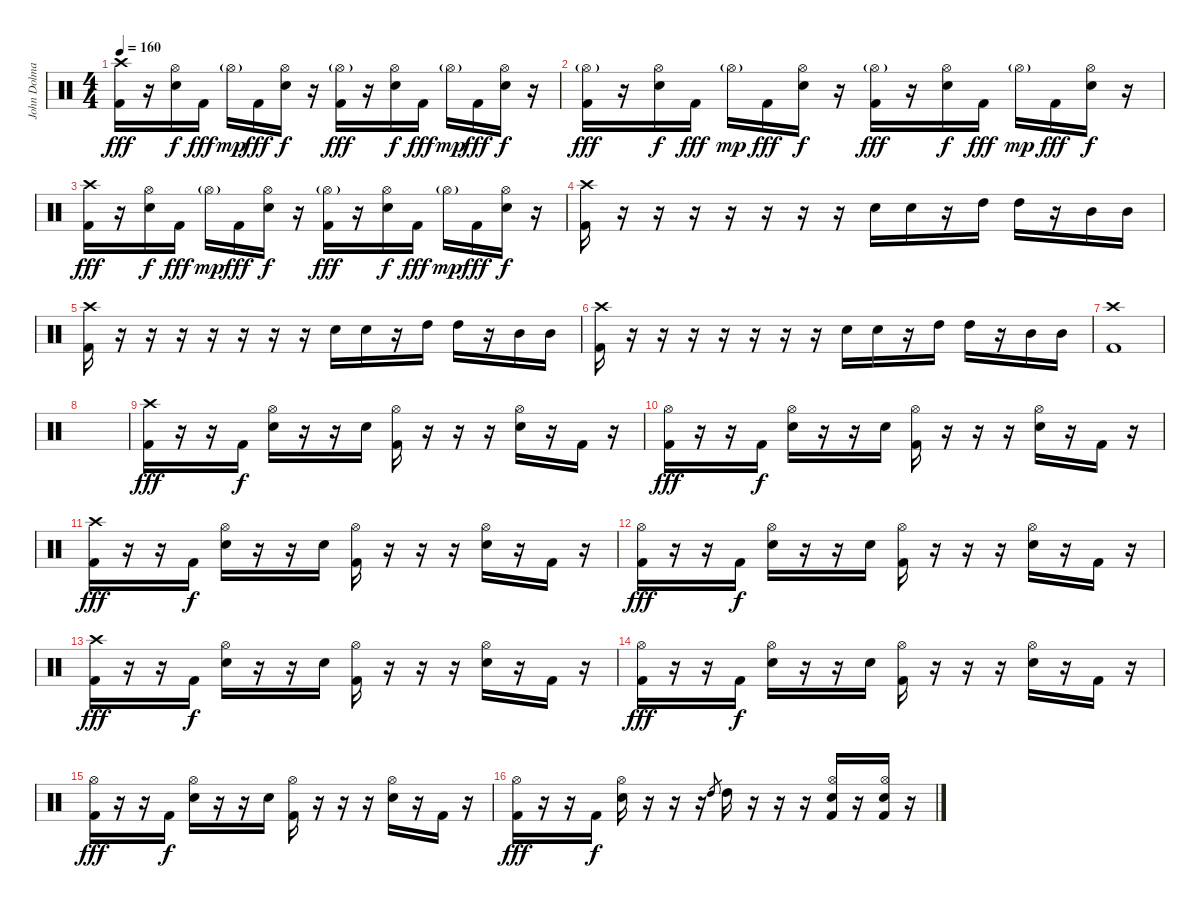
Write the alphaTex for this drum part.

\track ("John Dolmayan(Drums)" "John Dolma") {instrument percussion}
\staff {score}
\articulation defaults
\ts (4 4)
\tempo 160
\clef neutral
\ks c
("Crash high (hit)" "Kick (hit) 2").16{dy fff} r.16 ("Hi-Hat (open)" "Electric Snare (hit)").16{dy f} "Kick (hit) 2".16{dy fff} "Hi-Hat (open)"{g}.16{dy mp} "Kick (hit) 2".16{dy fff} ("Hi-Hat (open)" "Electric Snare (hit)").16{dy f} r.16 ("Hi-Hat (open)"{g} "Kick (hit) 2").16{dy fff} r.16 ("Hi-Hat (open)" "Electric Snare (hit)").16{dy f} "Kick (hit) 2".16{dy fff} "Hi-Hat (open)"{g}.16{dy mp} "Kick (hit) 2".16{dy fff} ("Hi-Hat (open)" "Electric Snare (hit)").16{dy f} r.16 |
("Hi-Hat (open)"{g} "Kick (hit) 2").16{dy fff} r.16 ("Hi-Hat (open)" "Electric Snare (hit)").16{dy f} "Kick (hit) 2".16{dy fff} "Hi-Hat (open)"{g}.16{dy mp} "Kick (hit) 2".16{dy fff} ("Hi-Hat (open)" "Electric Snare (hit)").16{dy f} r.16 ("Hi-Hat (open)"{g} "Kick (hit) 2").16{dy fff} r.16 ("Hi-Hat (open)" "Electric Snare (hit)").16{dy f} "Kick (hit) 2".16{dy fff} "Hi-Hat (open)"{g}.16{dy mp} "Kick (hit) 2".16{dy fff} ("Hi-Hat (open)" "Electric Snare (hit)").16{dy f} r.16 |
("Crash high (hit)" "Kick (hit) 2").16{dy fff} r.16 ("Hi-Hat (open)" "Electric Snare (hit)").16{dy f} "Kick (hit) 2".16{dy fff} "Hi-Hat (open)"{g}.16{dy mp} "Kick (hit) 2".16{dy fff} ("Hi-Hat (open)" "Electric Snare (hit)").16{dy f} r.16 ("Hi-Hat (open)"{g} "Kick (hit) 2").16{dy fff} r.16 ("Hi-Hat (open)" "Electric Snare (hit)").16{dy f} "Kick (hit) 2".16{dy fff} "Hi-Hat (open)"{g}.16{dy mp} "Kick (hit) 2".16{dy fff} ("Hi-Hat (open)" "Electric Snare (hit)").16{dy f} r.16 |
("Crash high (hit)" "Kick (hit) 2").16 r.16 r.16 r.16 r.16 r.16 r.16 r.16 "Electric Snare (hit)".16 "Electric Snare (hit)".16 r.16 "High Tom (hit)".16 "High Tom (hit)".16 r.16 "Mid Tom (hit)".16 "Mid Tom (hit)".16 |
("Crash high (hit)" "Kick (hit) 2").16 r.16 r.16 r.16 r.16 r.16 r.16 r.16 "Electric Snare (hit)".16 "Electric Snare (hit)".16 r.16 "High Tom (hit)".16 "High Tom (hit)".16 r.16 "Mid Tom (hit)".16 "Mid Tom (hit)".16 |
("Crash high (hit)" "Kick (hit) 2").16 r.16 r.16 r.16 r.16 r.16 r.16 r.16 "Electric Snare (hit)".16 "Electric Snare (hit)".16 r.16 "High Tom (hit)".16 "High Tom (hit)".16 r.16 "Mid Tom (hit)".16 "Mid Tom (hit)".16 |
("Crash high (hit)" "Kick (hit) 2").1 |
|
("Crash high (hit)" "Kick (hit) 2").16{dy fff} r.16 r.16 "Kick (hit) 2".16{dy f} ("Hi-Hat (open)" "Electric Snare (hit)").16 r.16 r.16 "Electric Snare (hit)".16 ("Hi-Hat (open)" "Kick (hit) 2").16 r.16 r.16 r.16 ("Hi-Hat (open)" "Electric Snare (hit)").16 r.16 "Kick (hit) 2".16 r.16 |
("Hi-Hat (open)" "Kick (hit) 2").16{dy fff} r.16 r.16 "Kick (hit) 2".16{dy f} ("Hi-Hat (open)" "Electric Snare (hit)").16 r.16 r.16 "Electric Snare (hit)".16 ("Hi-Hat (open)" "Kick (hit) 2").16 r.16 r.16 r.16 ("Hi-Hat (open)" "Electric Snare (hit)").16 r.16 "Kick (hit) 2".16 r.16 |
("Crash high (hit)" "Kick (hit) 2").16{dy fff} r.16 r.16 "Kick (hit) 2".16{dy f} ("Hi-Hat (open)" "Electric Snare (hit)").16 r.16 r.16 "Electric Snare (hit)".16 ("Hi-Hat (open)" "Kick (hit) 2").16 r.16 r.16 r.16 ("Hi-Hat (open)" "Electric Snare (hit)").16 r.16 "Kick (hit) 2".16 r.16 |
("Hi-Hat (open)" "Kick (hit) 2").16{dy fff} r.16 r.16 "Kick (hit) 2".16{dy f} ("Hi-Hat (open)" "Electric Snare (hit)").16 r.16 r.16 "Electric Snare (hit)".16 ("Hi-Hat (open)" "Kick (hit) 2").16 r.16 r.16 r.16 ("Hi-Hat (open)" "Electric Snare (hit)").16 r.16 "Kick (hit) 2".16 r.16 |
("Crash high (hit)" "Kick (hit) 2").16{dy fff} r.16 r.16 "Kick (hit) 2".16{dy f} ("Hi-Hat (open)" "Electric Snare (hit)").16 r.16 r.16 "Electric Snare (hit)".16 ("Hi-Hat (open)" "Kick (hit) 2").16 r.16 r.16 r.16 ("Hi-Hat (open)" "Electric Snare (hit)").16 r.16 "Kick (hit) 2".16 r.16 |
("Hi-Hat (open)" "Kick (hit) 2").16{dy fff} r.16 r.16 "Kick (hit) 2".16{dy f} ("Hi-Hat (open)" "Electric Snare (hit)").16 r.16 r.16 "Electric Snare (hit)".16 ("Hi-Hat (open)" "Kick (hit) 2").16 r.16 r.16 r.16 ("Hi-Hat (open)" "Electric Snare (hit)").16 r.16 "Kick (hit) 2".16 r.16 |
("Hi-Hat (open)" "Kick (hit) 2").16{dy fff} r.16 r.16 "Kick (hit) 2".16{dy f} ("Hi-Hat (open)" "Electric Snare (hit)").16 r.16 r.16 "Electric Snare (hit)".16 ("Hi-Hat (open)" "Kick (hit) 2").16 r.16 r.16 r.16 ("Hi-Hat (open)" "Electric Snare (hit)").16 r.16 "Kick (hit) 2".16 r.16 |
("Hi-Hat (open)" "Kick (hit) 2").16{dy fff} r.16 r.16 "Kick (hit) 2".16{dy f} ("Hi-Hat (open)" "Electric Snare (hit)").16 r.16 r.16 r.16 "High Tom (hit)".8{gr} "High Tom (hit)".16 r.16 r.16 r.16 ("Hi-Hat (open)" "Electric Snare (hit)" "Kick (hit) 2").16 r.16 ("Hi-Hat (open)" "Electric Snare (hit)" "Kick (hit) 2").16 r.16
